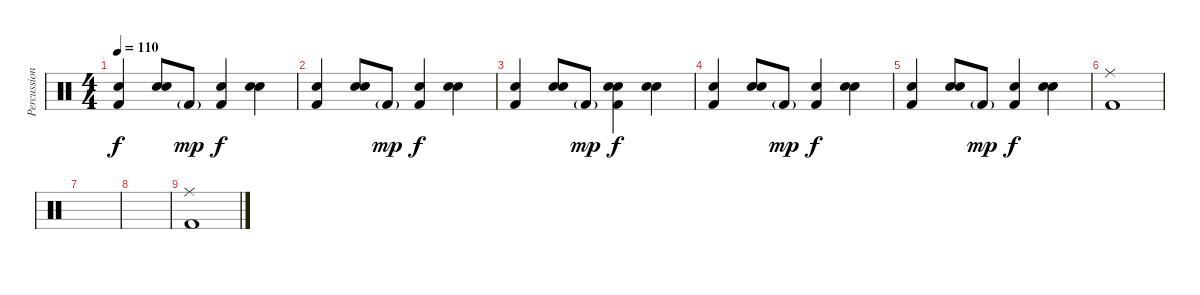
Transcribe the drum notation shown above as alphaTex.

\track ("Percussion" "Percussion") {instrument percussion}
\staff {score}
\articulation defaults
\ts (4 4)
\tempo 110
\clef neutral
\ks c
("Hand Clap (hit)" "Kick (hit) 2").4{dy f} ("Snare (hit) 2" "Hand Clap (hit)").8 "Kick (hit) 2"{g}.8{dy mp} ("Hand Clap (hit)" "Kick (hit) 2").4{dy f} ("Snare (hit) 2" "Hand Clap (hit)").4 |
("Hand Clap (hit)" "Kick (hit) 2").4 ("Snare (hit) 2" "Hand Clap (hit)").8 "Kick (hit) 2"{g}.8{dy mp} ("Hand Clap (hit)" "Kick (hit) 2").4{dy f} ("Snare (hit) 2" "Hand Clap (hit)").4 |
("Hand Clap (hit)" "Kick (hit) 2").4 ("Snare (hit) 2" "Hand Clap (hit)").8 "Kick (hit) 2"{g}.8{dy mp} ("Snare (hit) 2" "Hand Clap (hit)" "Kick (hit) 2").4{dy f} ("Snare (hit) 2" "Hand Clap (hit)").4 |
("Hand Clap (hit)" "Kick (hit) 2").4 ("Snare (hit) 2" "Hand Clap (hit)").8 "Kick (hit) 2"{g}.8{dy mp} ("Hand Clap (hit)" "Kick (hit) 2").4{dy f} ("Snare (hit) 2" "Hand Clap (hit)").4 |
("Hand Clap (hit)" "Kick (hit) 2").4 ("Snare (hit) 2" "Hand Clap (hit)").8 "Kick (hit) 2"{g}.8{dy mp} ("Hand Clap (hit)" "Kick (hit) 2").4{dy f} ("Snare (hit) 2" "Hand Clap (hit)").4 |
("Ride (middle)" "Kick (hit) 2").1 |
|
|
("Ride (middle)" "Kick (hit) 2").1
